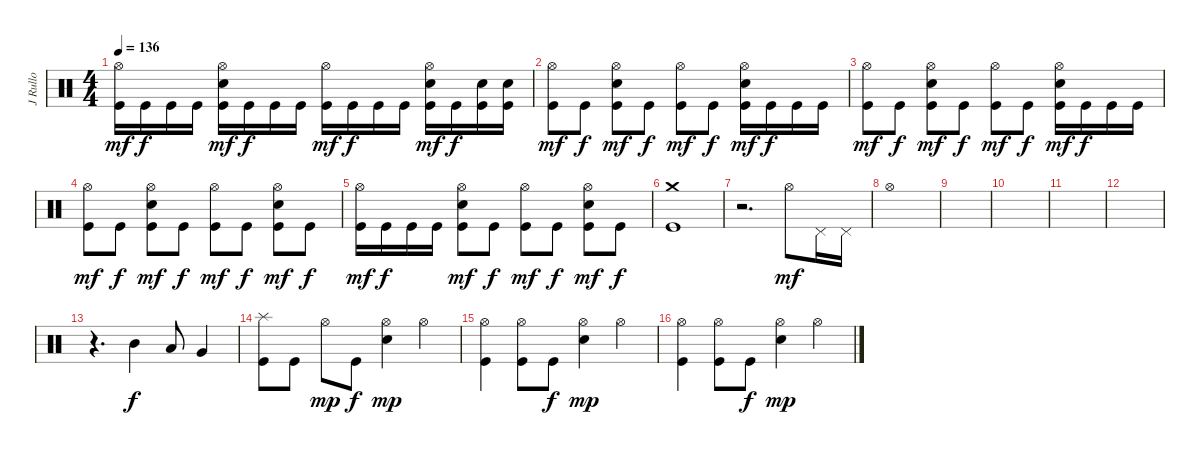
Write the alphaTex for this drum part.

\track ("J Rullo" "J Rullo") {instrument percussion}
\staff {score}
\articulation defaults
\ts (4 4)
\tempo 136
\clef neutral
\ks c
("Hi-Hat (open)" "Kick (hit)").16{dy mf} "Kick (hit)".16{dy f} "Kick (hit)".16 "Kick (hit)".16 ("Hi-Hat (open)" "Electric Snare (hit)" "Kick (hit)").16{dy mf} "Kick (hit)".16{dy f} "Kick (hit)".16 "Kick (hit)".16 ("Hi-Hat (open)" "Kick (hit)").16{dy mf} "Kick (hit)".16{dy f} "Kick (hit)".16 "Kick (hit)".16 ("Hi-Hat (open)" "Electric Snare (hit)" "Kick (hit)").16{dy mf} "Kick (hit)".16{dy f} ("Electric Snare (hit)" "Kick (hit)").16 ("Electric Snare (hit)" "Kick (hit)").16 |
("Hi-Hat (open)" "Kick (hit)").8{dy mf} "Kick (hit)".8{dy f} ("Hi-Hat (open)" "Electric Snare (hit)" "Kick (hit)").8{dy mf} "Kick (hit)".8{dy f} ("Hi-Hat (open)" "Kick (hit)").8{dy mf} "Kick (hit)".8{dy f} ("Hi-Hat (open)" "Electric Snare (hit)" "Kick (hit)").16{dy mf} "Kick (hit)".16{dy f} "Kick (hit)".16 "Kick (hit)".16 |
("Hi-Hat (open)" "Kick (hit)").8{dy mf} "Kick (hit)".8{dy f} ("Hi-Hat (open)" "Electric Snare (hit)" "Kick (hit)").8{dy mf} "Kick (hit)".8{dy f} ("Hi-Hat (open)" "Kick (hit)").8{dy mf} "Kick (hit)".8{dy f} ("Hi-Hat (open)" "Electric Snare (hit)" "Kick (hit)").16{dy mf} "Kick (hit)".16{dy f} "Kick (hit)".16 "Kick (hit)".16 |
("Hi-Hat (open)" "Kick (hit)").8{dy mf} "Kick (hit)".8{dy f} ("Hi-Hat (open)" "Electric Snare (hit)" "Kick (hit)").8{dy mf} "Kick (hit)".8{dy f} ("Hi-Hat (open)" "Kick (hit)").8{dy mf} "Kick (hit)".8{dy f} ("Hi-Hat (open)" "Electric Snare (hit)" "Kick (hit)").8{dy mf} "Kick (hit)".8{dy f} |
("Hi-Hat (open)" "Kick (hit)").16{dy mf} "Kick (hit)".16{dy f} "Kick (hit)".16 "Kick (hit)".16 ("Hi-Hat (open)" "Electric Snare (hit)" "Kick (hit)").8{dy mf} "Kick (hit)".8{dy f} ("Hi-Hat (open)" "Kick (hit)").8{dy mf} "Kick (hit)".8{dy f} ("Hi-Hat (open)" "Electric Snare (hit)" "Kick (hit)").8{dy mf} "Kick (hit)".8{dy f} |
("Crash medium (hit)" "Kick (hit)").1 |
r.2{d} "Hi-Hat (open)".8{dy mf} "Pedal Hi-Hat (hit)".16 "Pedal Hi-Hat (hit)".16 |
"Hi-Hat (open)".1 |
|
|
|
|
r.4{d} "Mid Tom (hit)".4{dy f} "Low Tom (hit)".8 "Very Low Tom (hit)".4 |
("Splash (hit)" "Kick (hit)").8 "Kick (hit)".8 "Hi-Hat (open)".8{dy mp} "Kick (hit)".8{dy f} ("Hi-Hat (open)" "Electric Snare (hit)").4{dy mp} "Hi-Hat (open)".4 |
("Hi-Hat (open)" "Kick (hit)").4 ("Hi-Hat (open)" "Kick (hit)").8 "Kick (hit)".8{dy f} ("Hi-Hat (open)" "Electric Snare (hit)").4{dy mp} "Hi-Hat (open)".4 |
("Hi-Hat (open)" "Kick (hit)").4 ("Hi-Hat (open)" "Kick (hit)").8 "Kick (hit)".8{dy f} ("Hi-Hat (open)" "Electric Snare (hit)").4{dy mp} "Hi-Hat (open)".4
